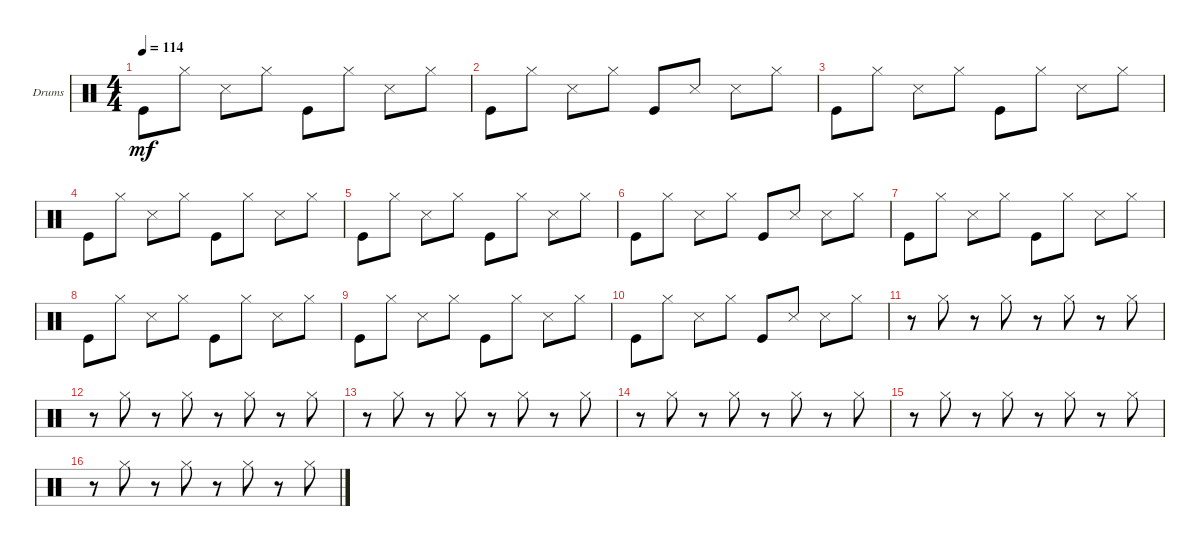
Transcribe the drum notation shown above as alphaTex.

\defaultSystemsLayout 4
\bracketExtendMode groupsimilarinstruments
\firstSystemTrackNameOrientation horizontal
\otherSystemsTrackNameOrientation horizontal
\track ("Drumkit" "Drums") {instrument percussion}
\staff {score}
\articulation defaults
\ts (4 4)
\tempo 114
\clef neutral
\ks c "Kick (hit)".8{dy mf} "Hi-Hat (closed)".8 "Snare (side stick) 3".8 "Hi-Hat (closed)".8 "Kick (hit)".8 "Hi-Hat (closed)".8 "Snare (side stick) 3".8 "Hi-Hat (closed)".8
|
"Kick (hit)".8 "Hi-Hat (closed)".8 "Snare (side stick) 3".8 "Hi-Hat (closed)".8 "Kick (hit)".8 "Snare (side stick) 3".8 "Snare (side stick) 3".8 "Hi-Hat (closed)".8 |
"Kick (hit)".8 "Hi-Hat (closed)".8 "Snare (side stick) 3".8 "Hi-Hat (closed)".8 "Kick (hit)".8 "Hi-Hat (closed)".8 "Snare (side stick) 3".8 "Hi-Hat (closed)".8 |
"Kick (hit)".8 "Hi-Hat (closed)".8 "Snare (side stick) 3".8 "Hi-Hat (closed)".8 "Kick (hit)".8 "Hi-Hat (closed)".8 "Snare (side stick) 3".8 "Hi-Hat (closed)".8 |
"Kick (hit)".8 "Hi-Hat (closed)".8 "Snare (side stick) 3".8 "Hi-Hat (closed)".8 "Kick (hit)".8 "Hi-Hat (closed)".8 "Snare (side stick) 3".8 "Hi-Hat (closed)".8 |
"Kick (hit)".8 "Hi-Hat (closed)".8 "Snare (side stick) 3".8 "Hi-Hat (closed)".8 "Kick (hit)".8 "Snare (side stick) 3".8 "Snare (side stick) 3".8 "Hi-Hat (closed)".8 |
"Kick (hit)".8 "Hi-Hat (closed)".8 "Snare (side stick) 3".8 "Hi-Hat (closed)".8 "Kick (hit)".8 "Hi-Hat (closed)".8 "Snare (side stick) 3".8 "Hi-Hat (closed)".8 |
"Kick (hit)".8 "Hi-Hat (closed)".8 "Snare (side stick) 3".8 "Hi-Hat (closed)".8 "Kick (hit)".8 "Hi-Hat (closed)".8 "Snare (side stick) 3".8 "Hi-Hat (closed)".8 |
"Kick (hit)".8 "Hi-Hat (closed)".8 "Snare (side stick) 3".8 "Hi-Hat (closed)".8 "Kick (hit)".8 "Hi-Hat (closed)".8 "Snare (side stick) 3".8 "Hi-Hat (closed)".8 |
"Kick (hit)".8 "Hi-Hat (closed)".8 "Snare (side stick) 3".8 "Hi-Hat (closed)".8 "Kick (hit)".8 "Snare (side stick) 3".8 "Snare (side stick) 3".8 "Hi-Hat (closed)".8 |
r.8 "Hi-Hat (closed)".8 r.8 "Hi-Hat (closed)".8 r.8 "Hi-Hat (closed)".8 r.8 "Hi-Hat (closed)".8 |
r.8 "Hi-Hat (closed)".8 r.8 "Hi-Hat (closed)".8 r.8 "Hi-Hat (closed)".8 r.8 "Hi-Hat (closed)".8 |
r.8 "Hi-Hat (closed)".8 r.8 "Hi-Hat (closed)".8 r.8 "Hi-Hat (closed)".8 r.8 "Hi-Hat (closed)".8 |
r.8 "Hi-Hat (closed)".8 r.8 "Hi-Hat (closed)".8 r.8 "Hi-Hat (closed)".8 r.8 "Hi-Hat (closed)".8 |
r.8 "Hi-Hat (closed)".8 r.8 "Hi-Hat (closed)".8 r.8 "Hi-Hat (closed)".8 r.8 "Hi-Hat (closed)".8 |
r.8 "Hi-Hat (closed)".8 r.8 "Hi-Hat (closed)".8 r.8 "Hi-Hat (closed)".8 r.8 "Hi-Hat (closed)".8
